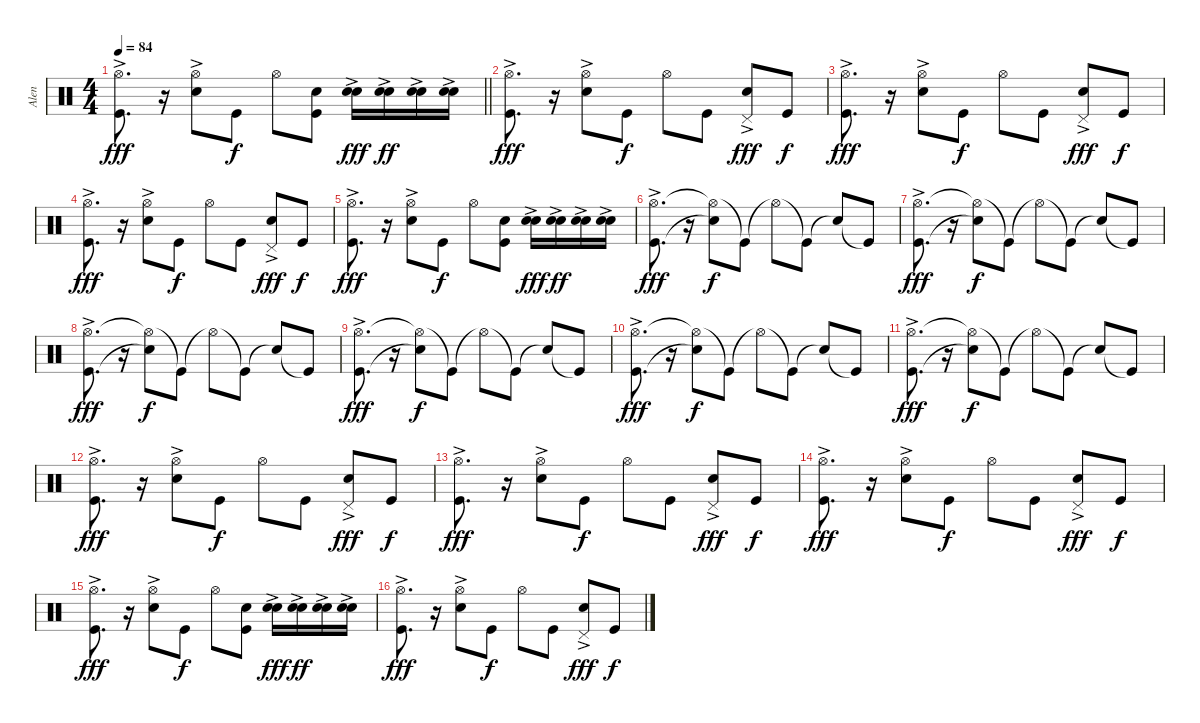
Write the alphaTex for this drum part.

\track ("Alen" "Alen") {instrument percussion}
\staff {score}
\articulation defaults
\ts (4 4)
\tempo 84
\clef neutral
\barLineRight lightlight
\ks c
("Hi-Hat (open)"{ac} "Kick (hit)").8{d dy fff} r.16 ("Hi-Hat (open)" "Snare (hit) 2"{ac}).8 "Kick (hit)".8{dy f} "Hi-Hat (open)".8 ("Electric Snare (hit)" "Kick (hit)").8 ("Snare (hit) 2"{ac} "Electric Snare (hit)"{ac}).16{dy fff} ("Snare (hit) 2"{ac} "Electric Snare (hit)").16{dy ff} ("Snare (hit) 2"{ac} "Electric Snare (hit)").16 ("Snare (hit) 2"{ac} "Electric Snare (hit)").16 |
("Hi-Hat (open)"{ac} "Kick (hit)").8{d dy fff} r.16 ("Hi-Hat (open)" "Snare (hit) 2"{ac}).8 "Kick (hit)".8{dy f} "Hi-Hat (open)".8 "Kick (hit)".8 ("Snare (hit) 2"{ac} "Pedal Hi-Hat (hit)"{ac}).8{dy fff} "Kick (hit)".8{dy f} |
("Hi-Hat (open)"{ac} "Kick (hit)").8{d dy fff} r.16 ("Hi-Hat (open)" "Snare (hit) 2"{ac}).8 "Kick (hit)".8{dy f} "Hi-Hat (open)".8 "Kick (hit)".8 ("Snare (hit) 2"{ac} "Pedal Hi-Hat (hit)"{ac}).8{dy fff} "Kick (hit)".8{dy f} |
("Hi-Hat (open)"{ac} "Kick (hit)").8{d dy fff} r.16 ("Hi-Hat (open)" "Snare (hit) 2"{ac}).8 "Kick (hit)".8{dy f} "Hi-Hat (open)".8 "Kick (hit)".8 ("Snare (hit) 2"{ac} "Pedal Hi-Hat (hit)"{ac}).8{dy fff} "Kick (hit)".8{dy f} |
("Hi-Hat (open)"{ac} "Kick (hit)").8{d dy fff} r.16 ("Hi-Hat (open)" "Snare (hit) 2"{ac}).8 "Kick (hit)".8{dy f} "Hi-Hat (open)".8 ("Electric Snare (hit)" "Kick (hit)").8 ("Snare (hit) 2"{ac} "Electric Snare (hit)"{ac}).16{dy fff} ("Snare (hit) 2"{ac} "Electric Snare (hit)").16{dy ff} ("Snare (hit) 2"{ac} "Electric Snare (hit)").16 ("Snare (hit) 2"{ac} "Electric Snare (hit)").16 |
("Hi-Hat (open)"{ac} "Kick (hit)").8{d dy fff} r.16 ("Hi-Hat (open)"{t} "Snare (hit) 2"{t}).8{dy f} "Kick (hit)"{t}.8 "Hi-Hat (open)"{t}.8 "Kick (hit)"{t}.8 "Snare (hit) 2"{t}.8 "Kick (hit)"{t}.8 |
("Hi-Hat (open)"{ac} "Kick (hit)").8{d dy fff} r.16 ("Hi-Hat (open)"{t} "Snare (hit) 2"{t}).8{dy f} "Kick (hit)"{t}.8 "Hi-Hat (open)"{t}.8 "Kick (hit)"{t}.8 "Snare (hit) 2"{t}.8 "Kick (hit)"{t}.8 |
("Hi-Hat (open)"{ac} "Kick (hit)").8{d dy fff} r.16 ("Hi-Hat (open)"{t} "Snare (hit) 2"{t}).8{dy f} "Kick (hit)"{t}.8 "Hi-Hat (open)"{t}.8 "Kick (hit)"{t}.8 "Snare (hit) 2"{t}.8 "Kick (hit)"{t}.8 |
("Hi-Hat (open)"{ac} "Kick (hit)").8{d dy fff} r.16 ("Hi-Hat (open)"{t} "Snare (hit) 2"{t}).8{dy f} "Kick (hit)"{t}.8 "Hi-Hat (open)"{t}.8 "Kick (hit)"{t}.8 "Snare (hit) 2"{t}.8 "Kick (hit)"{t}.8 |
("Hi-Hat (open)"{ac} "Kick (hit)").8{d dy fff} r.16 ("Hi-Hat (open)"{t} "Snare (hit) 2"{t}).8{dy f} "Kick (hit)"{t}.8 "Hi-Hat (open)"{t}.8 "Kick (hit)"{t}.8 "Snare (hit) 2"{t}.8 "Kick (hit)"{t}.8 |
("Hi-Hat (open)"{ac} "Kick (hit)").8{d dy fff} r.16 ("Hi-Hat (open)"{t} "Snare (hit) 2"{t}).8{dy f} "Kick (hit)"{t}.8 "Hi-Hat (open)"{t}.8 "Kick (hit)"{t}.8 "Snare (hit) 2"{t}.8 "Kick (hit)"{t}.8 |
("Hi-Hat (open)"{ac} "Kick (hit)").8{d dy fff} r.16 ("Hi-Hat (open)" "Snare (hit) 2"{ac}).8 "Kick (hit)".8{dy f} "Hi-Hat (open)".8 "Kick (hit)".8 ("Snare (hit) 2"{ac} "Pedal Hi-Hat (hit)"{ac}).8{dy fff} "Kick (hit)".8{dy f} |
("Hi-Hat (open)"{ac} "Kick (hit)").8{d dy fff} r.16 ("Hi-Hat (open)" "Snare (hit) 2"{ac}).8 "Kick (hit)".8{dy f} "Hi-Hat (open)".8 "Kick (hit)".8 ("Snare (hit) 2"{ac} "Pedal Hi-Hat (hit)"{ac}).8{dy fff} "Kick (hit)".8{dy f} |
("Hi-Hat (open)"{ac} "Kick (hit)").8{d dy fff} r.16 ("Hi-Hat (open)" "Snare (hit) 2"{ac}).8 "Kick (hit)".8{dy f} "Hi-Hat (open)".8 "Kick (hit)".8 ("Snare (hit) 2"{ac} "Pedal Hi-Hat (hit)"{ac}).8{dy fff} "Kick (hit)".8{dy f} |
("Hi-Hat (open)"{ac} "Kick (hit)").8{d dy fff} r.16 ("Hi-Hat (open)" "Snare (hit) 2"{ac}).8 "Kick (hit)".8{dy f} "Hi-Hat (open)".8 ("Electric Snare (hit)" "Kick (hit)").8 ("Snare (hit) 2"{ac} "Electric Snare (hit)"{ac}).16{dy fff} ("Snare (hit) 2"{ac} "Electric Snare (hit)").16{dy ff} ("Snare (hit) 2"{ac} "Electric Snare (hit)").16 ("Snare (hit) 2"{ac} "Electric Snare (hit)").16 |
("Hi-Hat (open)"{ac} "Kick (hit)").8{d dy fff} r.16 ("Hi-Hat (open)" "Snare (hit) 2"{ac}).8 "Kick (hit)".8{dy f} "Hi-Hat (open)".8 "Kick (hit)".8 ("Snare (hit) 2"{ac} "Pedal Hi-Hat (hit)"{ac}).8{dy fff} "Kick (hit)".8{dy f}
